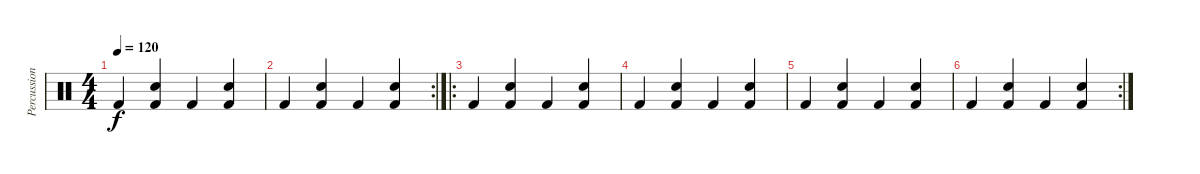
\track ("Percussion" "Percussion") {instrument percussion}
\staff {score}
\articulation defaults
\ts (4 4)
\tempo 120
\clef neutral
\ks c "Kick (hit) 2".4{dy f}
("Kick (hit) 2" "Snare (hit) 2").4 "Kick (hit) 2".4 ("Kick (hit) 2" "Snare (hit) 2").4 |
\rc 2 "Kick (hit) 2".4
("Kick (hit) 2" "Snare (hit) 2").4 "Kick (hit) 2".4 ("Kick (hit) 2" "Snare (hit) 2").4 |
\ro "Kick (hit) 2".4
("Kick (hit) 2" "Snare (hit) 2").4 "Kick (hit) 2".4 ("Kick (hit) 2" "Snare (hit) 2").4 |
"Kick (hit) 2".4 ("Kick (hit) 2" "Snare (hit) 2").4 "Kick (hit) 2".4 ("Kick (hit) 2" "Snare (hit) 2").4 |
"Kick (hit) 2".4 ("Kick (hit) 2" "Snare (hit) 2").4 "Kick (hit) 2".4 ("Kick (hit) 2" "Snare (hit) 2").4 |
\rc 2 "Kick (hit) 2".4
("Kick (hit) 2" "Snare (hit) 2").4 "Kick (hit) 2".4 ("Kick (hit) 2" "Snare (hit) 2").4
